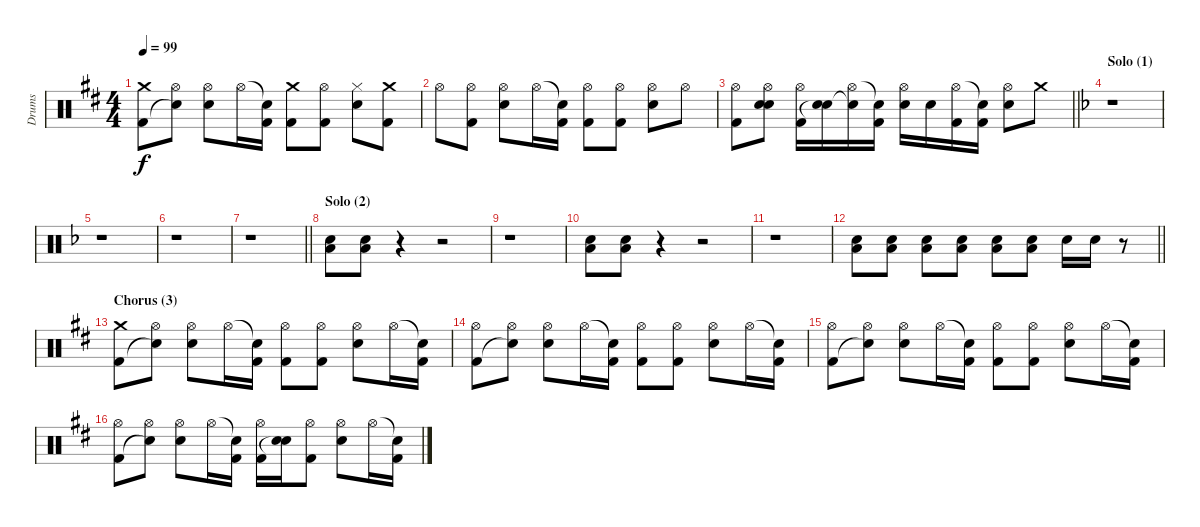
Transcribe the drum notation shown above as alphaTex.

\track ("Drums" "Drums") {instrument percussion}
\staff {score}
\articulation defaults
\ts (4 4)
\tempo 99
\clef neutral
\ks d
("Crash medium (hit)" "Kick (hit) 2").8{dy f} ("Hi-Hat (open)" "Snare (hit)"{t}).8 ("Hi-Hat (open)" "Electric Snare (hit)").8 "Hi-Hat (open)".16 ("Snare (hit)"{t} "Kick (hit) 2").16 ("Crash medium (hit)" "Kick (hit) 2").8 ("Hi-Hat (open)" "Kick (hit) 2").8 ("Hi-Hat (closed)" "Electric Snare (hit)").8 ("Crash medium (hit)" "Kick (hit) 2").8 |
"Hi-Hat (open)".8 ("Hi-Hat (open)" "Kick (hit) 2").8 ("Hi-Hat (open)" "Electric Snare (hit)").8 "Hi-Hat (open)".16 ("Snare (hit)"{t} "Kick (hit) 2").16 ("Hi-Hat (open)" "Kick (hit) 2").8 ("Hi-Hat (open)" "Kick (hit) 2").8 ("Hi-Hat (open)" "Electric Snare (hit)").8 "Hi-Hat (open)".8 |
\barLineRight lightlight
("Hi-Hat (open)" "Kick (hit) 2").8 ("Hi-Hat (open)" "Electric Snare (hit)" "Snare (hit)").8 ("Hi-Hat (open)" "Kick (hit) 2").16 ("Electric Snare (hit)" "Snare (hit)"{t}).16 ("Hi-Hat (open)" "Snare (hit)"{t}).16 ("Snare (hit)"{t} "Kick (hit) 2").16 ("Hi-Hat (open)" "Electric Snare (hit)").16 "Electric Snare (hit)".16 ("Hi-Hat (open)" "Kick (hit) 2").16 ("Snare (hit)"{t} "Kick (hit) 2").16 ("Hi-Hat (open)" "Electric Snare (hit)").8 "Crash medium (hit)".8 |
\section ("" "Solo (1)")
\ks dminor
r.1 |
r.1 |
r.1 |
\barLineRight lightlight
r.1 |
\section ("" "Solo (2)")
("Electric Snare (hit)" "Low Floor Tom (hit)").8 ("Electric Snare (hit)" "Low Floor Tom (hit)").8 r.4 r.2 |
r.1 |
("Electric Snare (hit)" "Low Floor Tom (hit)").8 ("Electric Snare (hit)" "Low Floor Tom (hit)").8 r.4 r.2 |
r.1 |
\barLineRight lightlight
("Electric Snare (hit)" "Low Floor Tom (hit)").8 ("Electric Snare (hit)" "Low Floor Tom (hit)").8 ("Electric Snare (hit)" "Low Floor Tom (hit)").8 ("Electric Snare (hit)" "Low Floor Tom (hit)").8 ("Electric Snare (hit)" "Low Floor Tom (hit)").8 ("Electric Snare (hit)" "Low Floor Tom (hit)").8 "Electric Snare (hit)".16 "Electric Snare (hit)".16 r.8 |
\section ("" "Chorus (3)")
\ks d
("Crash medium (hit)" "Kick (hit) 2").8 ("Hi-Hat (open)" "Snare (hit)"{t}).8 ("Hi-Hat (open)" "Electric Snare (hit)").8 "Hi-Hat (open)".16 ("Snare (hit)"{t} "Kick (hit) 2").16 ("Hi-Hat (open)" "Kick (hit) 2").8 ("Hi-Hat (open)" "Kick (hit) 2").8 ("Hi-Hat (open)" "Electric Snare (hit)").8 "Hi-Hat (open)".16 ("Snare (hit)"{t} "Kick (hit) 2").16 |
("Hi-Hat (open)" "Kick (hit) 2").8 ("Hi-Hat (open)" "Snare (hit)"{t}).8 ("Hi-Hat (open)" "Electric Snare (hit)").8 "Hi-Hat (open)".16 ("Snare (hit)"{t} "Kick (hit) 2").16 ("Hi-Hat (open)" "Kick (hit) 2").8 ("Hi-Hat (open)" "Kick (hit) 2").8 ("Hi-Hat (open)" "Electric Snare (hit)").8 "Hi-Hat (open)".16 ("Snare (hit)"{t} "Kick (hit) 2").16 |
("Hi-Hat (open)" "Kick (hit) 2").8 ("Hi-Hat (open)" "Snare (hit)"{t}).8 ("Hi-Hat (open)" "Electric Snare (hit)").8 "Hi-Hat (open)".16 ("Snare (hit)"{t} "Kick (hit) 2").16 ("Hi-Hat (open)" "Kick (hit) 2").8 ("Hi-Hat (open)" "Kick (hit) 2").8 ("Hi-Hat (open)" "Electric Snare (hit)").8 "Hi-Hat (open)".16 ("Snare (hit)"{t} "Kick (hit) 2").16 |
("Hi-Hat (open)" "Kick (hit) 2").8 ("Hi-Hat (open)" "Snare (hit)"{t}).8 ("Hi-Hat (open)" "Electric Snare (hit)").8 "Hi-Hat (open)".16 ("Snare (hit)"{t} "Kick (hit) 2").16 ("Hi-Hat (open)" "Kick (hit) 2").16 ("Electric Snare (hit)" "Snare (hit)"{t}).16 ("Hi-Hat (open)" "Kick (hit) 2").8 ("Hi-Hat (open)" "Electric Snare (hit)").8 "Hi-Hat (open)".16 ("Snare (hit)"{t} "Kick (hit) 2").16
